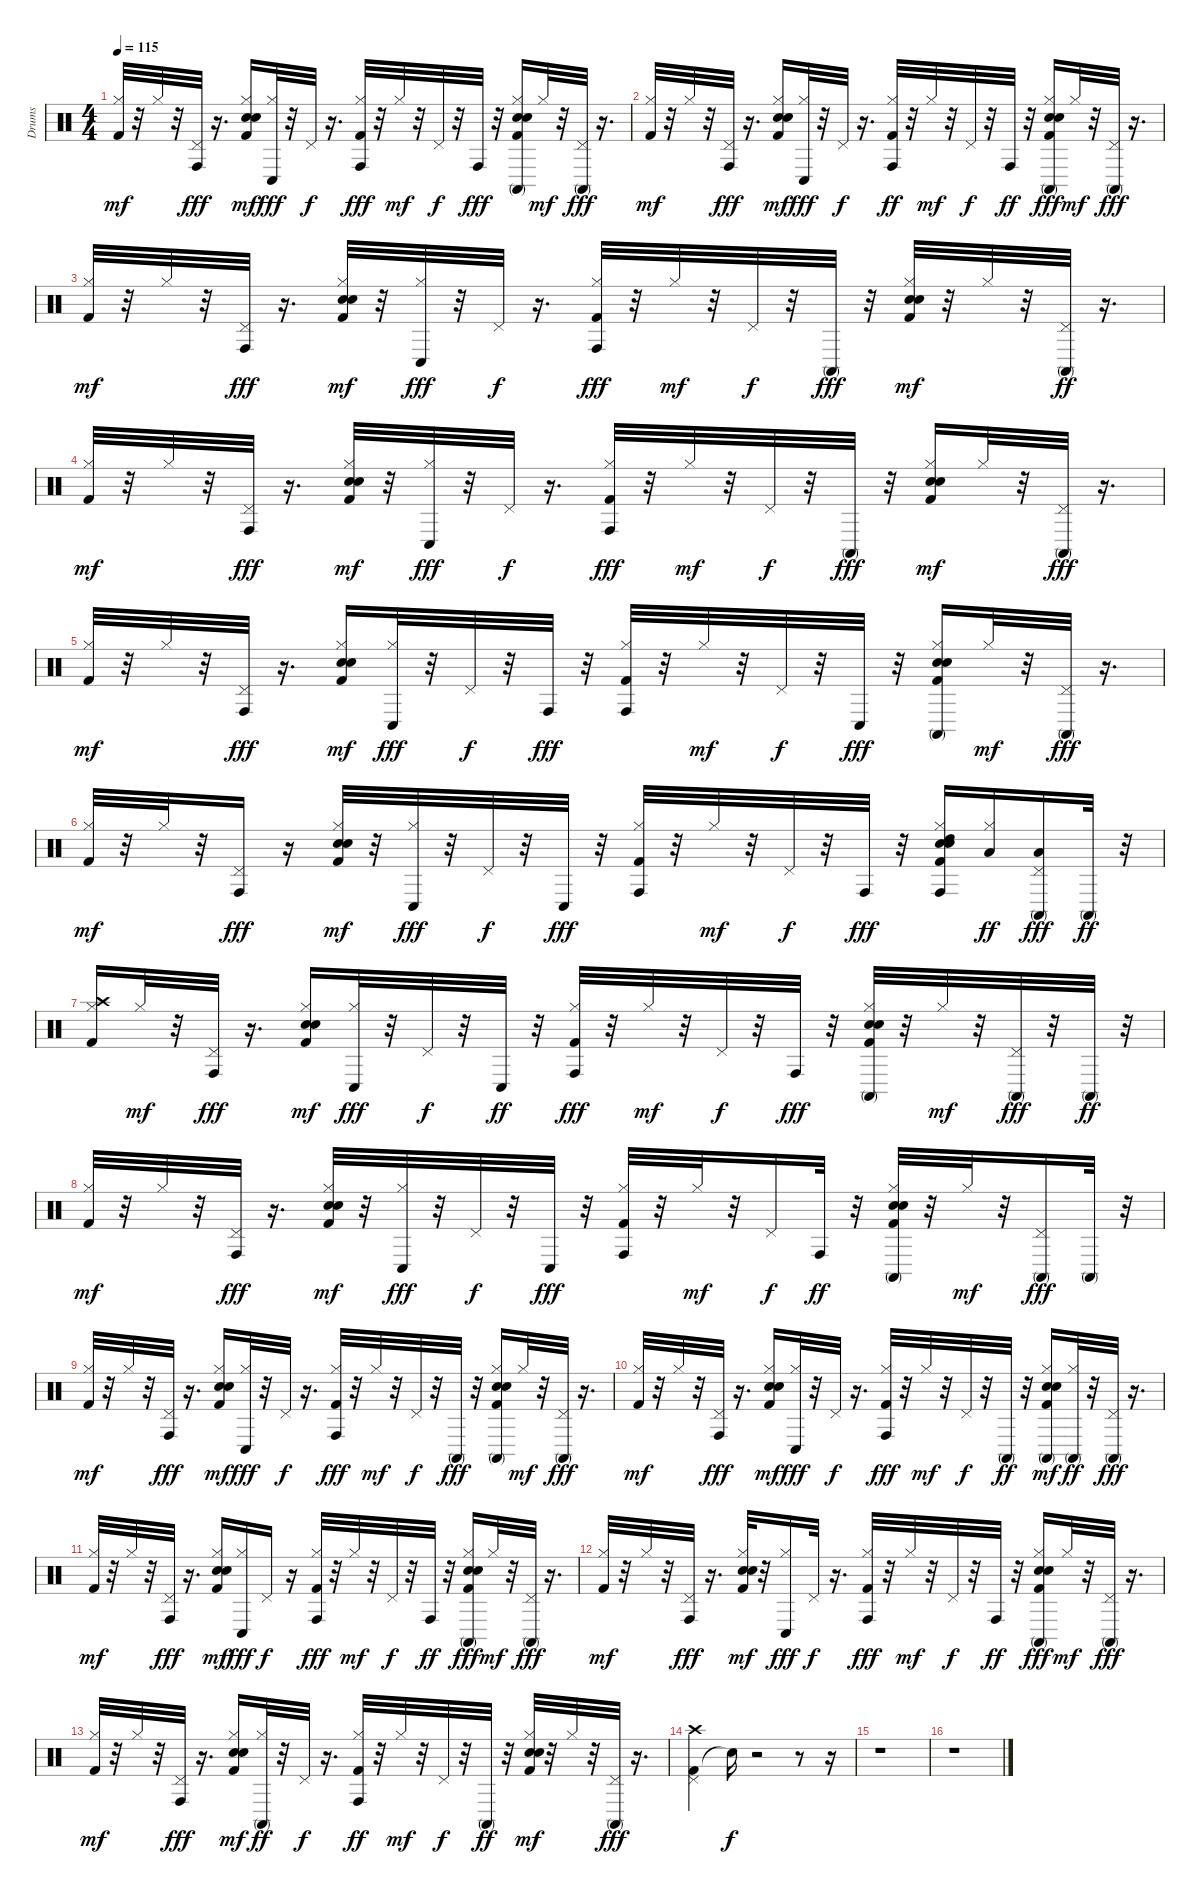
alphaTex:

\track ("Drums" "Drums") {instrument percussion}
\staff {score}
\articulation defaults
\ts (4 4)
\tempo 115
\clef neutral
\ks c
("Kick (hit) 2" "Hi-Hat (closed)").32{dy mf} r.32 "Hi-Hat (closed)".32 r.32 ("Pedal Hi-Hat (hit)" "Conga high (hit)").32{dy fff} r.16{d} ("Kick (hit) 2" "Snare (hit) 2" "Hand Clap (hit)" "Hi-Hat (closed)").16{dy mf} ("Hi-Hat (closed)" "Conga low (hit)").32{dy fff} r.32 "Pedal Hi-Hat (hit)".32{dy f} r.16{d} ("Kick (hit) 2" "Hi-Hat (closed)" "Conga high (hit)").32{dy fff} r.32 "Hi-Hat (closed)".32{dy mf} r.32 "Pedal Hi-Hat (hit)".32{dy f} r.32 "Conga high (hit)".32{dy fff} r.32 ("Kick (hit) 2" "Snare (hit) 2" "Hand Clap (hit)" "Hi-Hat (closed)" "Conga high (mute)").16 "Hi-Hat (closed)".32{dy mf} r.32 ("Pedal Hi-Hat (hit)" "Conga high (mute)").32{dy fff} r.16{d} |
("Kick (hit) 2" "Hi-Hat (closed)").32{dy mf} r.32 "Hi-Hat (closed)".32 r.32 ("Pedal Hi-Hat (hit)" "Conga high (hit)").32{dy fff} r.16{d} ("Kick (hit) 2" "Snare (hit) 2" "Hand Clap (hit)" "Hi-Hat (closed)").16{dy mf} ("Hi-Hat (closed)" "Conga low (hit)").32{dy fff} r.32 "Pedal Hi-Hat (hit)".32{dy f} r.16{d} ("Kick (hit) 2" "Hi-Hat (closed)" "Conga high (hit)").32{dy ff} r.32 "Hi-Hat (closed)".32{dy mf} r.32 "Pedal Hi-Hat (hit)".32{dy f} r.32 "Conga high (hit)".32{dy ff} r.32 ("Kick (hit) 2" "Snare (hit) 2" "Hand Clap (hit)" "Hi-Hat (closed)" "Conga high (mute)").16{dy fff} "Hi-Hat (closed)".32{dy mf} r.32 ("Pedal Hi-Hat (hit)" "Conga high (mute)").32{dy fff} r.16{d} |
("Kick (hit) 2" "Hi-Hat (closed)").32{dy mf} r.32 "Hi-Hat (closed)".32 r.32 ("Pedal Hi-Hat (hit)" "Conga high (hit)").32{dy fff} r.16{d} ("Kick (hit) 2" "Snare (hit) 2" "Hand Clap (hit)" "Hi-Hat (closed)").32{dy mf} r.32 ("Hi-Hat (closed)" "Conga low (hit)").32{dy fff} r.32 "Pedal Hi-Hat (hit)".32{dy f} r.16{d} ("Kick (hit) 2" "Hi-Hat (closed)" "Conga high (hit)").32{dy fff} r.32 "Hi-Hat (closed)".32{dy mf} r.32 "Pedal Hi-Hat (hit)".32{dy f} r.32 "Conga high (mute)".32{dy fff} r.32 ("Kick (hit) 2" "Snare (hit) 2" "Hand Clap (hit)" "Hi-Hat (closed)").32{dy mf} r.32 "Hi-Hat (closed)".32 r.32 ("Pedal Hi-Hat (hit)" "Conga high (mute)").32{dy ff} r.16{d} |
("Kick (hit) 2" "Hi-Hat (closed)").32{dy mf} r.32 "Hi-Hat (closed)".32 r.32 ("Pedal Hi-Hat (hit)" "Conga high (hit)").32{dy fff} r.16{d} ("Kick (hit) 2" "Snare (hit) 2" "Hand Clap (hit)" "Hi-Hat (closed)").32{dy mf} r.32 ("Hi-Hat (closed)" "Conga low (hit)").32{dy fff} r.32 "Pedal Hi-Hat (hit)".32{dy f} r.16{d} ("Kick (hit) 2" "Hi-Hat (closed)" "Conga high (hit)").32{dy fff} r.32 "Hi-Hat (closed)".32{dy mf} r.32 "Pedal Hi-Hat (hit)".32{dy f} r.32 "Conga high (mute)".32{dy fff} r.32 ("Kick (hit) 2" "Snare (hit) 2" "Hand Clap (hit)" "Hi-Hat (closed)").16{dy mf} "Hi-Hat (closed)".32 r.32 ("Pedal Hi-Hat (hit)" "Conga high (mute)").32{dy fff} r.16{d} |
("Kick (hit) 2" "Hi-Hat (closed)").32{dy mf} r.32 "Hi-Hat (closed)".32 r.32 ("Pedal Hi-Hat (hit)" "Conga high (hit)").32{dy fff} r.16{d} ("Kick (hit) 2" "Snare (hit) 2" "Hand Clap (hit)" "Hi-Hat (closed)").16{dy mf} ("Hi-Hat (closed)" "Conga low (hit)").32{dy fff} r.32 "Pedal Hi-Hat (hit)".32{dy f} r.32 "Conga high (hit)".32{dy fff} r.32 ("Kick (hit) 2" "Hi-Hat (closed)" "Conga high (hit)").32 r.32 "Hi-Hat (closed)".32{dy mf} r.32 "Pedal Hi-Hat (hit)".32{dy f} r.32 "Conga low (hit)".32{dy fff} r.32 ("Kick (hit) 2" "Snare (hit) 2" "Hand Clap (hit)" "Hi-Hat (closed)" "Conga high (mute)").16 "Hi-Hat (closed)".32{dy mf} r.32 ("Pedal Hi-Hat (hit)" "Conga high (mute)").32{dy fff} r.16{d} |
("Kick (hit) 2" "Hi-Hat (closed)").32{dy mf} r.32 "Hi-Hat (closed)".32 r.32 ("Pedal Hi-Hat (hit)" "Conga high (hit)").16{dy fff} r.16 ("Kick (hit) 2" "Snare (hit) 2" "Hand Clap (hit)" "Hi-Hat (closed)").32{dy mf} r.32 ("Hi-Hat (closed)" "Conga low (hit)").32{dy fff} r.32 "Pedal Hi-Hat (hit)".32{dy f} r.32 "Conga low (hit)".32{dy fff} r.32 ("Kick (hit) 2" "Hi-Hat (closed)" "Conga high (hit)").32 r.32 "Hi-Hat (closed)".32{dy mf} r.32 "Pedal Hi-Hat (hit)".32{dy f} r.32 "Conga high (hit)".32{dy fff} r.32 ("Kick (hit) 2" "Snare (hit) 2" "Hand Clap (hit)" "Hi-Hat (closed)" "High Tom (hit)" "Conga high (hit)").16 ("Hi-Hat (closed)" "Low Tom (hit)").16{dy ff} ("Pedal Hi-Hat (hit)" "Low Floor Tom (hit)" "Conga high (mute)").16{dy fff} "Conga high (mute)".32{dy ff} r.32 |
("Kick (hit) 2" "Hi-Hat (closed)" "Crash high (hit)").16 "Hi-Hat (closed)".32{dy mf} r.32 ("Pedal Hi-Hat (hit)" "Conga high (hit)").32{dy fff} r.16{d} ("Kick (hit) 2" "Snare (hit) 2" "Hand Clap (hit)" "Hi-Hat (closed)").16{dy mf} ("Hi-Hat (closed)" "Conga low (hit)").32{dy fff} r.32 "Pedal Hi-Hat (hit)".32{dy f} r.32 "Conga low (hit)".32{dy ff} r.32 ("Kick (hit) 2" "Hi-Hat (closed)" "Conga high (hit)").32{dy fff} r.32 "Hi-Hat (closed)".32{dy mf} r.32 "Pedal Hi-Hat (hit)".32{dy f} r.32 "Conga high (hit)".32{dy fff} r.32 ("Kick (hit) 2" "Snare (hit) 2" "Hand Clap (hit)" "Hi-Hat (closed)" "Conga high (mute)").32 r.32 "Hi-Hat (closed)".32{dy mf} r.32 ("Pedal Hi-Hat (hit)" "Conga high (mute)").32{dy fff} r.32 "Conga high (mute)".32{dy ff} r.32 |
("Kick (hit) 2" "Hi-Hat (closed)").32{dy mf} r.32 "Hi-Hat (closed)".32 r.32 ("Pedal Hi-Hat (hit)" "Conga high (hit)").32{dy fff} r.16{d} ("Kick (hit) 2" "Snare (hit) 2" "Hand Clap (hit)" "Hi-Hat (closed)").32{dy mf} r.32 ("Hi-Hat (closed)" "Conga low (hit)").32{dy fff} r.32 "Pedal Hi-Hat (hit)".32{dy f} r.32 "Conga low (hit)".32{dy fff} r.32 ("Kick (hit) 2" "Hi-Hat (closed)" "Conga high (hit)").32 r.32 "Hi-Hat (closed)".32{dy mf} r.32 "Pedal Hi-Hat (hit)".16{dy f} "Conga high (hit)".32{dy ff} r.32 ("Kick (hit) 2" "Snare (hit) 2" "Hand Clap (hit)" "Hi-Hat (closed)" "Conga high (mute)").32 r.32 "Hi-Hat (closed)".32{dy mf} r.32 ("Pedal Hi-Hat (hit)" "Conga high (mute)").16{dy fff} "Conga high (mute)".32 r.32 |
("Kick (hit) 2" "Hi-Hat (closed)").32{dy mf} r.32 "Hi-Hat (closed)".32 r.32 ("Pedal Hi-Hat (hit)" "Conga high (hit)").32{dy fff} r.16{d} ("Kick (hit) 2" "Snare (hit) 2" "Hand Clap (hit)" "Hi-Hat (closed)").16{dy mf} ("Hi-Hat (closed)" "Conga low (hit)").32{dy fff} r.32 "Pedal Hi-Hat (hit)".32{dy f} r.16{d} ("Kick (hit) 2" "Hi-Hat (closed)" "Conga high (hit)").32{dy fff} r.32 "Hi-Hat (closed)".32{dy mf} r.32 "Pedal Hi-Hat (hit)".32{dy f} r.32 "Conga high (mute)".32{dy fff} r.32 ("Kick (hit) 2" "Snare (hit) 2" "Hand Clap (hit)" "Hi-Hat (closed)" "Conga high (mute)").16 "Hi-Hat (closed)".32{dy mf} r.32 ("Pedal Hi-Hat (hit)" "Conga high (mute)").32{dy fff} r.16{d} |
("Kick (hit) 2" "Hi-Hat (closed)").32{dy mf} r.32 "Hi-Hat (closed)".32 r.32 ("Pedal Hi-Hat (hit)" "Conga high (hit)").32{dy fff} r.16{d} ("Kick (hit) 2" "Snare (hit) 2" "Hand Clap (hit)" "Hi-Hat (closed)").16{dy mf} ("Hi-Hat (closed)" "Conga low (hit)").32{dy fff} r.32 "Pedal Hi-Hat (hit)".32{dy f} r.16{d} ("Kick (hit) 2" "Hi-Hat (closed)" "Conga high (hit)").32{dy fff} r.32 "Hi-Hat (closed)".32{dy mf} r.32 "Pedal Hi-Hat (hit)".32{dy f} r.32 "Conga high (mute)".32{dy ff} r.32 ("Kick (hit) 2" "Snare (hit) 2" "Hand Clap (hit)" "Hi-Hat (closed)" "Conga high (mute)").16{dy mf} ("Hi-Hat (closed)" "Conga high (mute)").32{dy ff} r.32 ("Pedal Hi-Hat (hit)" "Conga high (mute)").32{dy fff} r.16{d} |
("Kick (hit) 2" "Hi-Hat (closed)").32{dy mf} r.32 "Hi-Hat (closed)".32 r.32 ("Pedal Hi-Hat (hit)" "Conga high (hit)").32{dy fff} r.16{d} ("Kick (hit) 2" "Snare (hit) 2" "Hand Clap (hit)" "Hi-Hat (closed)").16{dy mf} ("Hi-Hat (closed)" "Conga low (hit)").16{dy fff} "Pedal Hi-Hat (hit)".16{dy f} r.16 ("Kick (hit) 2" "Hi-Hat (closed)" "Conga high (hit)").32{dy fff} r.32 "Hi-Hat (closed)".32{dy mf} r.32 "Pedal Hi-Hat (hit)".32{dy f} r.32 "Conga high (hit)".32{dy ff} r.32 ("Kick (hit) 2" "Snare (hit) 2" "Hand Clap (hit)" "Hi-Hat (closed)" "Conga high (mute)").16{dy fff} "Hi-Hat (closed)".32{dy mf} r.32 ("Pedal Hi-Hat (hit)" "Conga high (mute)").32{dy fff} r.16{d} |
("Kick (hit) 2" "Hi-Hat (closed)").32{dy mf} r.32 "Hi-Hat (closed)".32 r.32 ("Pedal Hi-Hat (hit)" "Conga high (hit)").32{dy fff} r.16{d} ("Kick (hit) 2" "Snare (hit) 2" "Hand Clap (hit)" "Hi-Hat (closed)").32{dy mf} r.32 ("Hi-Hat (closed)" "Conga low (hit)").16{dy fff} "Pedal Hi-Hat (hit)".32{dy f} r.16{d} ("Kick (hit) 2" "Hi-Hat (closed)" "Conga high (hit)").32{dy fff} r.32 "Hi-Hat (closed)".32{dy mf} r.32 "Pedal Hi-Hat (hit)".32{dy f} r.32 "Conga high (hit)".32{dy ff} r.32 ("Kick (hit) 2" "Snare (hit) 2" "Hand Clap (hit)" "Hi-Hat (closed)" "Conga high (mute)").16{dy fff} "Hi-Hat (closed)".32{dy mf} r.32 ("Pedal Hi-Hat (hit)" "Conga high (mute)").32{dy fff} r.16{d} |
("Kick (hit) 2" "Hi-Hat (closed)").32{dy mf} r.32 "Hi-Hat (closed)".32 r.32 ("Pedal Hi-Hat (hit)" "Conga high (hit)").32{dy fff} r.16{d} ("Kick (hit) 2" "Snare (hit) 2" "Hand Clap (hit)" "Hi-Hat (closed)").16{dy mf} ("Hi-Hat (closed)" "Conga high (mute)").32{dy ff} r.32 "Pedal Hi-Hat (hit)".32{dy f} r.16{d} ("Kick (hit) 2" "Hi-Hat (closed)" "Conga high (hit)").32{dy ff} r.32 "Hi-Hat (closed)".32{dy mf} r.32 "Pedal Hi-Hat (hit)".32{dy f} r.32 "Conga high (mute)".32{dy ff} r.32 ("Kick (hit) 2" "Snare (hit) 2" "Hand Clap (hit)" "Hi-Hat (closed)").32{dy mf} r.32 "Hi-Hat (closed)".32 r.32 ("Pedal Hi-Hat (hit)" "Conga high (mute)").32{dy fff} r.16{d} |
("Kick (hit) 2" "Pedal Hi-Hat (hit)" "Crash high (hit)").4 "Snare (hit)"{t}.16{dy f} r.2 r.8 r.16 |
r.1 |
r.1
